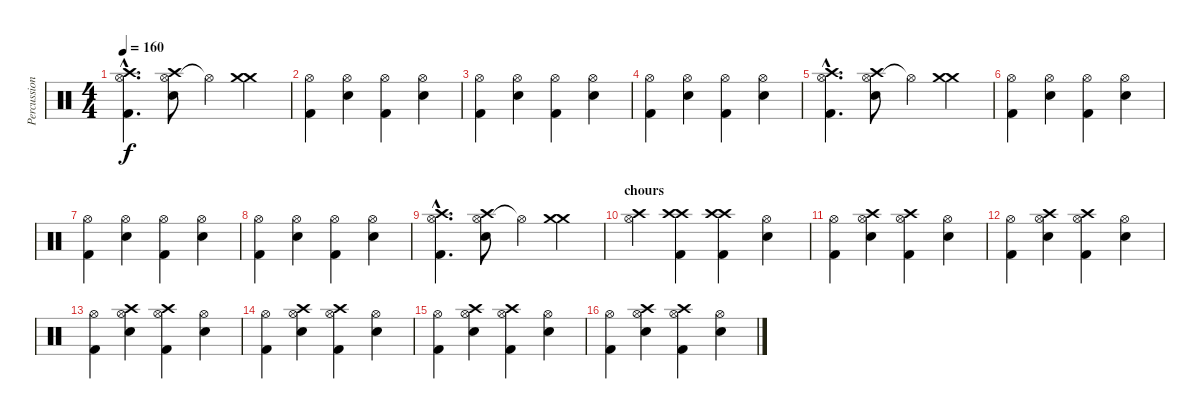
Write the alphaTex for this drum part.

\track ("Percussion" "Percussion") {instrument percussion}
\staff {score}
\articulation defaults
\ts (4 4)
\tempo 160
\clef neutral
\ks c
("Crash high (hit)"{hac} "Hi-Hat (open)"{hac} "Kick (hit) 2"{hac}).4{d dy f} ("Hi-Hat (open)" "Crash high (hit)" "Snare (hit) 2").8 "Hi-Hat (open)"{t}.4 ("Crash medium (hit)" "Crash medium (hit)").4 |
("Hi-Hat (open)" "Kick (hit) 2").4 ("Hi-Hat (open)" "Snare (hit) 2").4 ("Hi-Hat (open)" "Kick (hit) 2").4 ("Hi-Hat (open)" "Snare (hit) 2").4 |
("Hi-Hat (open)" "Kick (hit) 2").4 ("Hi-Hat (open)" "Snare (hit) 2").4 ("Hi-Hat (open)" "Kick (hit) 2").4 ("Hi-Hat (open)" "Snare (hit) 2").4 |
("Hi-Hat (open)" "Kick (hit) 2").4 ("Hi-Hat (open)" "Snare (hit) 2").4 ("Hi-Hat (open)" "Kick (hit) 2").4 ("Hi-Hat (open)" "Snare (hit) 2").4 |
("Crash high (hit)"{hac} "Hi-Hat (open)"{hac} "Kick (hit) 2"{hac}).4{d} ("Hi-Hat (open)" "Crash high (hit)" "Snare (hit) 2").8 "Hi-Hat (open)"{t}.4 ("Crash medium (hit)" "Crash medium (hit)").4 |
("Hi-Hat (open)" "Kick (hit) 2").4 ("Hi-Hat (open)" "Snare (hit) 2").4 ("Hi-Hat (open)" "Kick (hit) 2").4 ("Hi-Hat (open)" "Snare (hit) 2").4 |
("Hi-Hat (open)" "Kick (hit) 2").4 ("Hi-Hat (open)" "Snare (hit) 2").4 ("Hi-Hat (open)" "Kick (hit) 2").4 ("Hi-Hat (open)" "Snare (hit) 2").4 |
("Hi-Hat (open)" "Kick (hit) 2").4 ("Hi-Hat (open)" "Snare (hit) 2").4 ("Hi-Hat (open)" "Kick (hit) 2").4 ("Hi-Hat (open)" "Snare (hit) 2").4 |
("Crash high (hit)"{hac} "Hi-Hat (open)"{hac} "Kick (hit) 2"{hac}).4{d} ("Hi-Hat (open)" "Crash high (hit)" "Snare (hit) 2").8 "Hi-Hat (open)"{t}.4 ("Crash medium (hit)" "Crash medium (hit)").4 |
\section ("" "chours")
("Hi-Hat (open)" "Crash high (hit)").4 ("Crash high (hit)" "Crash high (hit)" "Kick (hit) 2").4 ("Crash high (hit)" "Crash high (hit)" "Kick (hit) 2").4 ("Hi-Hat (open)" "Snare (hit) 2").4 |
("Hi-Hat (open)" "Kick (hit) 2").4 ("Hi-Hat (open)" "Crash high (hit)" "Snare (hit) 2").4 ("Hi-Hat (open)" "Crash high (hit)" "Kick (hit) 2").4 ("Hi-Hat (open)" "Snare (hit) 2").4 |
("Hi-Hat (open)" "Kick (hit) 2").4 ("Hi-Hat (open)" "Crash high (hit)" "Snare (hit) 2").4 ("Hi-Hat (open)" "Crash high (hit)" "Kick (hit) 2").4 ("Hi-Hat (open)" "Snare (hit) 2").4 |
("Hi-Hat (open)" "Kick (hit) 2").4 ("Hi-Hat (open)" "Crash high (hit)" "Snare (hit) 2").4 ("Hi-Hat (open)" "Crash high (hit)" "Kick (hit) 2").4 ("Hi-Hat (open)" "Snare (hit) 2").4 |
("Hi-Hat (open)" "Kick (hit) 2").4 ("Hi-Hat (open)" "Crash high (hit)" "Snare (hit) 2").4 ("Hi-Hat (open)" "Crash high (hit)" "Kick (hit) 2").4 ("Hi-Hat (open)" "Snare (hit) 2").4 |
("Hi-Hat (open)" "Kick (hit) 2").4 ("Hi-Hat (open)" "Crash high (hit)" "Snare (hit) 2").4 ("Hi-Hat (open)" "Crash high (hit)" "Kick (hit) 2").4 ("Hi-Hat (open)" "Snare (hit) 2").4 |
("Hi-Hat (open)" "Kick (hit) 2").4 ("Hi-Hat (open)" "Crash high (hit)" "Snare (hit) 2").4 ("Hi-Hat (open)" "Crash high (hit)" "Kick (hit) 2").4 ("Hi-Hat (open)" "Snare (hit) 2").4
